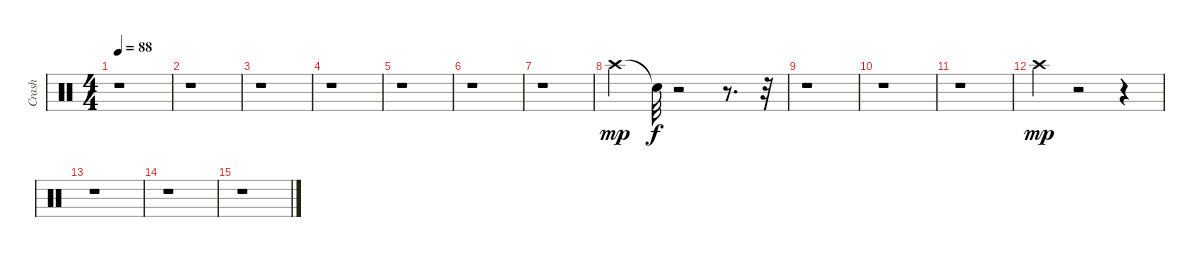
\track ("Crash" "Crash") {instrument percussion}
\staff {score}
\articulation defaults
\ts (4 4)
\tempo 88
\clef neutral
\ks c
r.1{dy f} |
r.1 |
r.1 |
r.1 |
r.1 |
r.1 |
r.1 |
"Crash high (hit)".4{dy mp} "Snare (hit)"{t}.32{dy f} r.2 r.8{d} r.32 |
r.1 |
r.1 |
r.1 |
"Crash high (hit)".4{dy mp} r.2 r.4 |
r.1 |
r.1 |
r.1
